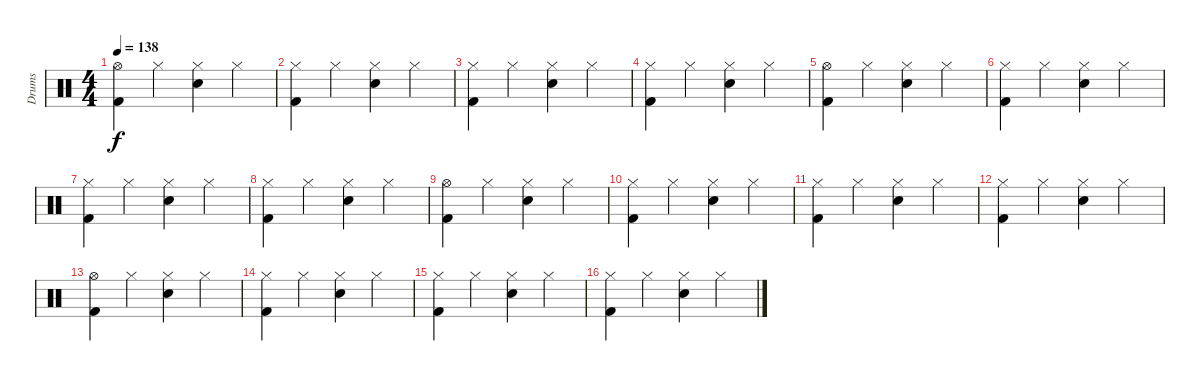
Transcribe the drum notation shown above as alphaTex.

\track ("Drums" "Drums") {instrument percussion}
\staff {score}
\articulation defaults
\ts (4 4)
\tempo 138
\clef neutral
\ks c
("Hi-Hat (open)" "Kick (hit) 2").4{dy f} "Hi-Hat (closed)".4 ("Hi-Hat (closed)" "Snare (hit) 2").4 "Hi-Hat (closed)".4 |
("Hi-Hat (closed)" "Kick (hit) 2").4 "Hi-Hat (closed)".4 ("Hi-Hat (closed)" "Snare (hit) 2").4 "Hi-Hat (closed)".4 |
("Hi-Hat (closed)" "Kick (hit) 2").4 "Hi-Hat (closed)".4 ("Hi-Hat (closed)" "Snare (hit) 2").4 "Hi-Hat (closed)".4 |
("Hi-Hat (closed)" "Kick (hit) 2").4 "Hi-Hat (closed)".4 ("Hi-Hat (closed)" "Snare (hit) 2").4 "Hi-Hat (closed)".4 |
("Hi-Hat (open)" "Kick (hit) 2").4 "Hi-Hat (closed)".4 ("Hi-Hat (closed)" "Snare (hit) 2").4 "Hi-Hat (closed)".4 |
("Hi-Hat (closed)" "Kick (hit) 2").4 "Hi-Hat (closed)".4 ("Hi-Hat (closed)" "Snare (hit) 2").4 "Hi-Hat (closed)".4 |
("Hi-Hat (closed)" "Kick (hit) 2").4 "Hi-Hat (closed)".4 ("Hi-Hat (closed)" "Snare (hit) 2").4 "Hi-Hat (closed)".4 |
("Hi-Hat (closed)" "Kick (hit) 2").4 "Hi-Hat (closed)".4 ("Hi-Hat (closed)" "Snare (hit) 2").4 "Hi-Hat (closed)".4 |
("Hi-Hat (open)" "Kick (hit) 2").4 "Hi-Hat (closed)".4 ("Hi-Hat (closed)" "Snare (hit) 2").4 "Hi-Hat (closed)".4 |
("Hi-Hat (closed)" "Kick (hit) 2").4 "Hi-Hat (closed)".4 ("Hi-Hat (closed)" "Snare (hit) 2").4 "Hi-Hat (closed)".4 |
("Hi-Hat (closed)" "Kick (hit) 2").4 "Hi-Hat (closed)".4 ("Hi-Hat (closed)" "Snare (hit) 2").4 "Hi-Hat (closed)".4 |
("Hi-Hat (closed)" "Kick (hit) 2").4 "Hi-Hat (closed)".4 ("Hi-Hat (closed)" "Snare (hit) 2").4 "Hi-Hat (closed)".4 |
("Hi-Hat (open)" "Kick (hit) 2").4 "Hi-Hat (closed)".4 ("Hi-Hat (closed)" "Snare (hit) 2").4 "Hi-Hat (closed)".4 |
("Hi-Hat (closed)" "Kick (hit) 2").4 "Hi-Hat (closed)".4 ("Hi-Hat (closed)" "Snare (hit) 2").4 "Hi-Hat (closed)".4 |
("Hi-Hat (closed)" "Kick (hit) 2").4 "Hi-Hat (closed)".4 ("Hi-Hat (closed)" "Snare (hit) 2").4 "Hi-Hat (closed)".4 |
("Hi-Hat (closed)" "Kick (hit) 2").4 "Hi-Hat (closed)".4 ("Hi-Hat (closed)" "Snare (hit) 2").4 "Hi-Hat (closed)".4
